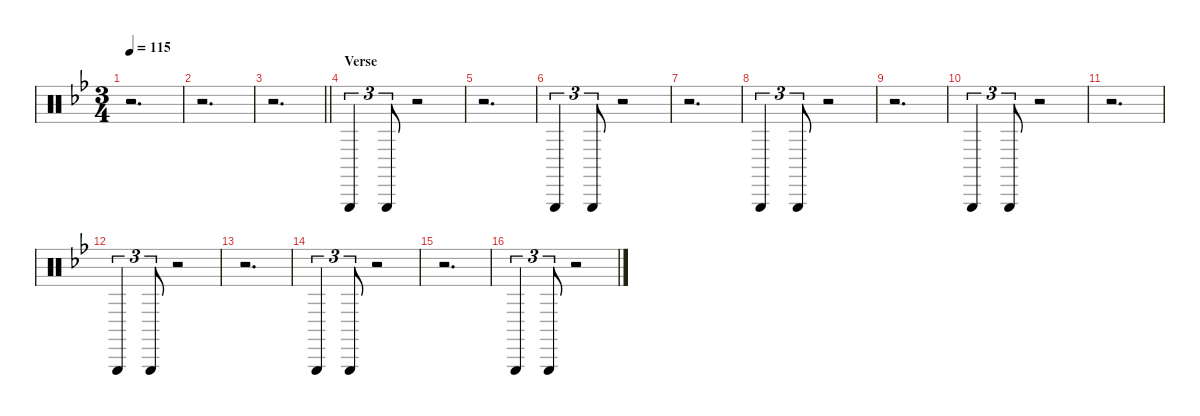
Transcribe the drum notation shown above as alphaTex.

\defaultSystemsLayout 4
\hideDynamics
\bracketExtendMode nobrackets
\singleTrackTrackNamePolicy hidden
\multiTrackTrackNamePolicy hidden
\firstSystemTrackNameMode fullname
\firstSystemTrackNameOrientation horizontal
\otherSystemsTrackNameOrientation horizontal
\track ("Percussion" "drm.") {defaultSystemsLayout 16 instrument percussion}
\staff {score}
\articulation defaults
\ts (3 4)
\tempo 115
\clef neutral
\ks gminor
r.2{d dy p beam Down} |
r.2{d beam Down} |
\barLineRight lightlight
r.2{d beam Down} |
\section ("" "Verse")
"Triangle (hit)"{acc forcenatural}.4{tu (3 2) dy mf beam Up} "Triangle (hit)"{acc forcenatural}.8{tu (3 2) dy p beam Up} r.2{beam Up} |
r.2{d beam Down} |
"Triangle (hit)"{acc forcenatural}.4{tu (3 2) dy mf beam Up} "Triangle (hit)"{acc forcenatural}.8{tu (3 2) dy p beam Up} r.2{beam Up} |
r.2{d beam Down} |
"Triangle (hit)"{acc forcenatural}.4{tu (3 2) dy mf beam Up} "Triangle (hit)"{acc forcenatural}.8{tu (3 2) dy p beam Up} r.2{beam Up} |
r.2{d beam Down} |
"Triangle (hit)"{acc forcenatural}.4{tu (3 2) dy mf beam Up} "Triangle (hit)"{acc forcenatural}.8{tu (3 2) dy p beam Up} r.2{beam Up} |
r.2{d beam Down} |
"Triangle (hit)"{acc forcenatural}.4{tu (3 2) dy mf beam Up} "Triangle (hit)"{acc forcenatural}.8{tu (3 2) dy p beam Up} r.2{beam Up} |
r.2{d beam Down} |
"Triangle (hit)"{acc forcenatural}.4{tu (3 2) dy mf beam Up} "Triangle (hit)"{acc forcenatural}.8{tu (3 2) dy p beam Up} r.2{beam Up} |
r.2{d beam Down} |
"Triangle (hit)"{acc forcenatural}.4{tu (3 2) dy mf beam Up} "Triangle (hit)"{acc forcenatural}.8{tu (3 2) dy p beam Up} r.2{beam Up}
